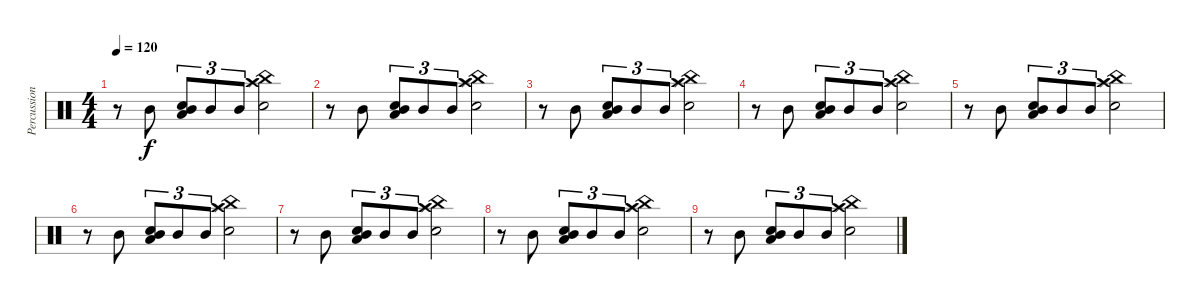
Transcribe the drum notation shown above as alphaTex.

\track ("Percussion" "Percussion") {instrument percussion}
\staff {score}
\articulation defaults
\ts (4 4)
\tempo 120
\clef neutral
\ks c
r.8{dy f} "Mid Tom (hit)".8 ("Mid Tom (hit)" "Snare (hit) 2" "Low Floor Tom (hit)").8{tu (3 2)} "Mid Tom (hit)".8{tu (3 2)} "Mid Tom (hit)".8{tu (3 2)} ("Crash high (hit)" "China (hit)" "Splash (hit)" "Snare (hit) 2").2 |
r.8 "Mid Tom (hit)".8 ("Mid Tom (hit)" "Snare (hit) 2" "Low Floor Tom (hit)").8{tu (3 2)} "Mid Tom (hit)".8{tu (3 2)} "Mid Tom (hit)".8{tu (3 2)} ("Crash high (hit)" "China (hit)" "Splash (hit)" "Snare (hit) 2").2 |
r.8 "Mid Tom (hit)".8 ("Mid Tom (hit)" "Snare (hit) 2" "Low Floor Tom (hit)").8{tu (3 2)} "Mid Tom (hit)".8{tu (3 2)} "Mid Tom (hit)".8{tu (3 2)} ("Crash high (hit)" "China (hit)" "Splash (hit)" "Snare (hit) 2").2 |
r.8 "Mid Tom (hit)".8 ("Mid Tom (hit)" "Snare (hit) 2" "Low Floor Tom (hit)").8{tu (3 2)} "Mid Tom (hit)".8{tu (3 2)} "Mid Tom (hit)".8{tu (3 2)} ("Crash high (hit)" "China (hit)" "Splash (hit)" "Snare (hit) 2").2 |
r.8 "Mid Tom (hit)".8 ("Mid Tom (hit)" "Snare (hit) 2" "Low Floor Tom (hit)").8{tu (3 2)} "Mid Tom (hit)".8{tu (3 2)} "Mid Tom (hit)".8{tu (3 2)} ("Crash high (hit)" "China (hit)" "Splash (hit)" "Snare (hit) 2").2 |
r.8 "Mid Tom (hit)".8 ("Mid Tom (hit)" "Snare (hit) 2" "Low Floor Tom (hit)").8{tu (3 2)} "Mid Tom (hit)".8{tu (3 2)} "Mid Tom (hit)".8{tu (3 2)} ("Crash high (hit)" "China (hit)" "Splash (hit)" "Snare (hit) 2").2 |
r.8 "Mid Tom (hit)".8 ("Mid Tom (hit)" "Snare (hit) 2" "Low Floor Tom (hit)").8{tu (3 2)} "Mid Tom (hit)".8{tu (3 2)} "Mid Tom (hit)".8{tu (3 2)} ("Crash high (hit)" "China (hit)" "Splash (hit)" "Snare (hit) 2").2 |
r.8 "Mid Tom (hit)".8 ("Mid Tom (hit)" "Snare (hit) 2" "Low Floor Tom (hit)").8{tu (3 2)} "Mid Tom (hit)".8{tu (3 2)} "Mid Tom (hit)".8{tu (3 2)} ("Crash high (hit)" "China (hit)" "Splash (hit)" "Snare (hit) 2").2 |
r.8 "Mid Tom (hit)".8 ("Mid Tom (hit)" "Snare (hit) 2" "Low Floor Tom (hit)").8{tu (3 2)} "Mid Tom (hit)".8{tu (3 2)} "Mid Tom (hit)".8{tu (3 2)} ("Crash high (hit)" "China (hit)" "Splash (hit)" "Snare (hit) 2").2
